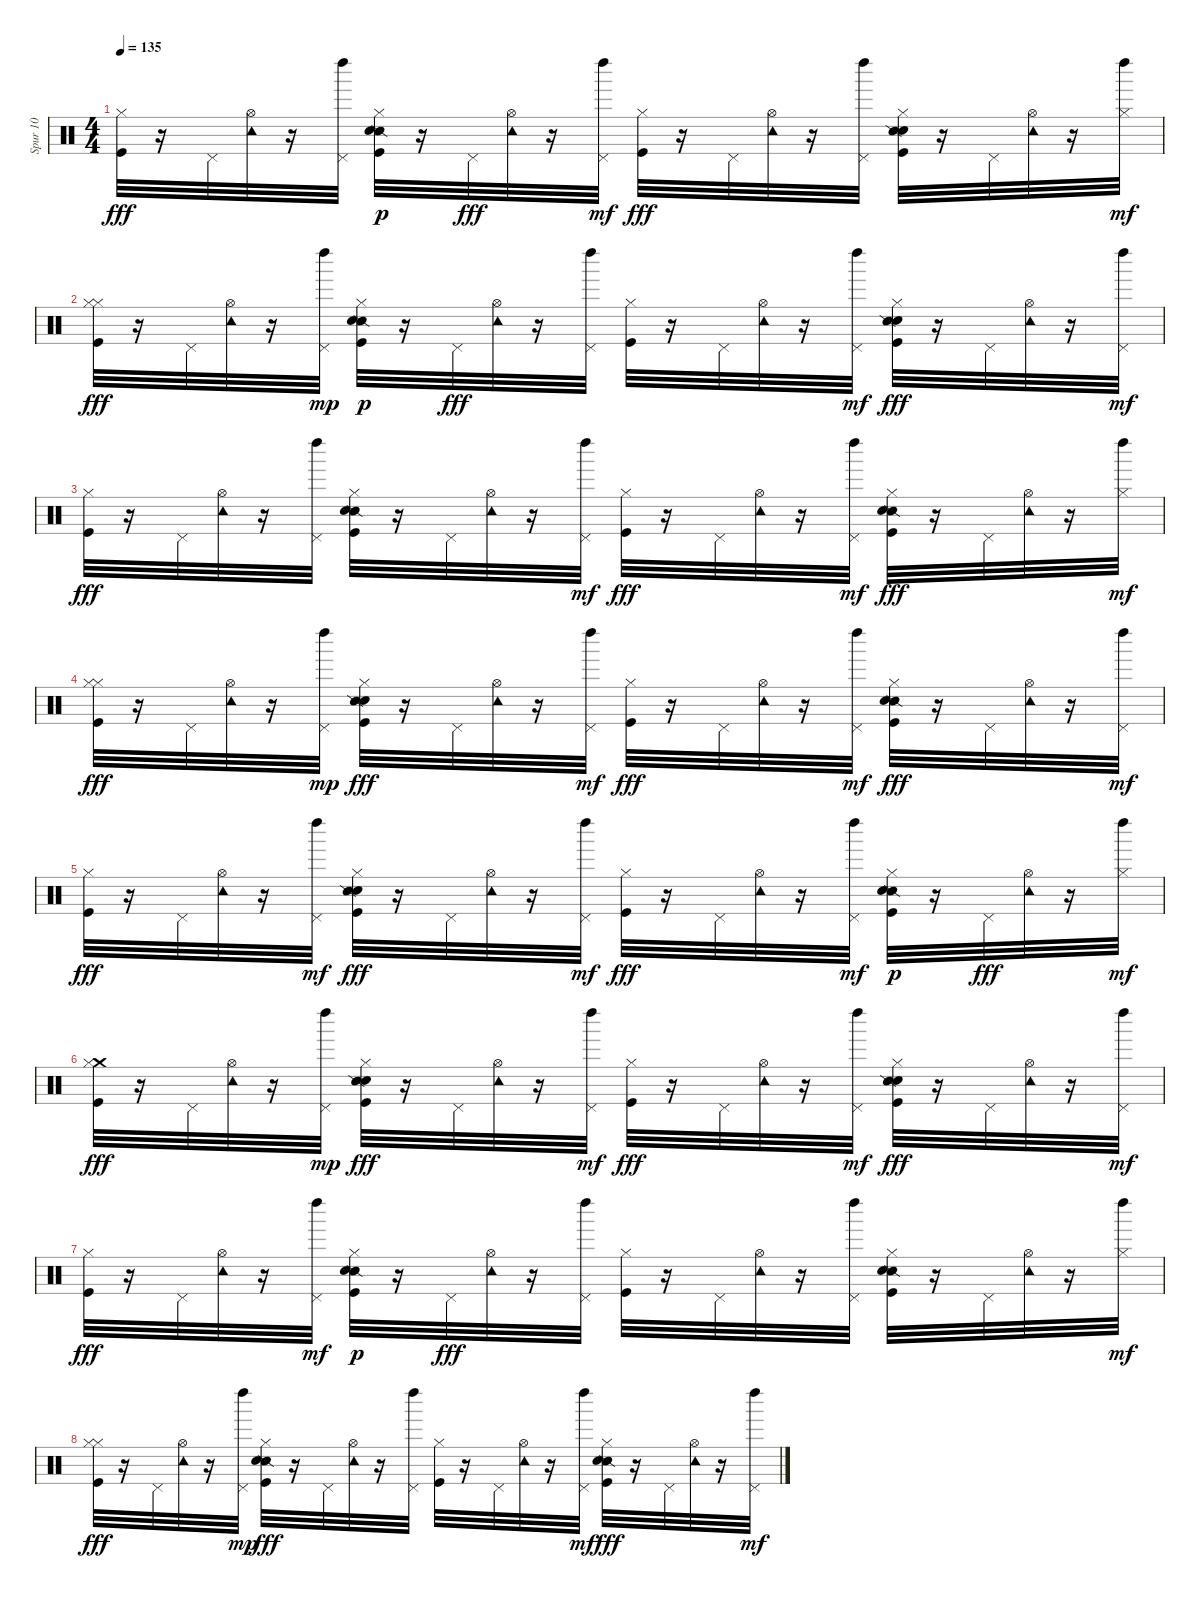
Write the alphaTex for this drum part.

\track ("Spur 10" "Spur 10") {instrument percussion}
\staff {score}
\articulation defaults
\ts (4 4)
\tempo 135
\clef neutral
\ks c
("Hi-Hat (closed)" "Kick (hit)").32{dy fff} r.16 "Pedal Hi-Hat (hit)".32 ("Hi-Hat (open)" "Tambourine (hit)").32 r.16 ("Left Maraca (hit)" "Pedal Hi-Hat (hit)").32 ("Snare (side stick) 2" "Kick (hit)" "Hi-Hat (closed)" "Hand Clap (hit)").32{dy p} r.16 "Pedal Hi-Hat (hit)".32{dy fff} ("Hi-Hat (open)" "Tambourine (hit)").32 r.16 ("Pedal Hi-Hat (hit)" "Left Maraca (hit)").32{dy mf} ("Hi-Hat (closed)" "Kick (hit)").32{dy fff} r.16 "Pedal Hi-Hat (hit)".32 ("Hi-Hat (open)" "Tambourine (hit)").32 r.16 ("Left Maraca (hit)" "Pedal Hi-Hat (hit)").32 ("Hand Clap (hit)" "Kick (hit)" "Hi-Hat (closed)" "Snare (side stick) 2").32 r.16 "Pedal Hi-Hat (hit)".32 ("Tambourine (hit)" "Hi-Hat (open)").32 r.16 ("Hi-Hat (closed)" "Left Maraca (hit)").32{dy mf} |
("Hi-Hat (closed)" "Hi-Hat (closed)" "Kick (hit)").32{dy fff} r.16 "Pedal Hi-Hat (hit)".32 ("Hi-Hat (open)" "Tambourine (hit)").32 r.16 ("Pedal Hi-Hat (hit)" "Left Maraca (hit)").32{dy mp} ("Hi-Hat (closed)" "Kick (hit)" "Snare (side stick) 2" "Hand Clap (hit)").32{dy p} r.16 "Pedal Hi-Hat (hit)".32{dy fff} ("Hi-Hat (open)" "Tambourine (hit)").32 r.16 ("Left Maraca (hit)" "Pedal Hi-Hat (hit)").32 ("Hi-Hat (closed)" "Kick (hit)").32 r.16 "Pedal Hi-Hat (hit)".32 ("Hi-Hat (open)" "Tambourine (hit)").32 r.16 ("Pedal Hi-Hat (hit)" "Left Maraca (hit)").32{dy mf} ("Hand Clap (hit)" "Snare (side stick) 2" "Kick (hit)" "Hi-Hat (closed)").32{dy fff} r.16 "Pedal Hi-Hat (hit)".32 ("Tambourine (hit)" "Hi-Hat (open)").32 r.16 ("Pedal Hi-Hat (hit)" "Left Maraca (hit)").32{dy mf} |
("Hi-Hat (closed)" "Kick (hit)").32{dy fff} r.16 "Pedal Hi-Hat (hit)".32 ("Hi-Hat (open)" "Tambourine (hit)").32 r.16 ("Left Maraca (hit)" "Pedal Hi-Hat (hit)").32 ("Snare (side stick) 2" "Hand Clap (hit)" "Kick (hit)" "Hi-Hat (closed)").32 r.16 "Pedal Hi-Hat (hit)".32 ("Hi-Hat (open)" "Tambourine (hit)").32 r.16 ("Pedal Hi-Hat (hit)" "Left Maraca (hit)").32{dy mf} ("Kick (hit)" "Hi-Hat (closed)").32{dy fff} r.16 "Pedal Hi-Hat (hit)".32 ("Hi-Hat (open)" "Tambourine (hit)").32 r.16 ("Pedal Hi-Hat (hit)" "Left Maraca (hit)").32{dy mf} ("Snare (side stick) 2" "Hand Clap (hit)" "Hi-Hat (closed)" "Kick (hit)").32{dy fff} r.16 "Pedal Hi-Hat (hit)".32 ("Hi-Hat (open)" "Tambourine (hit)").32 r.16 ("Left Maraca (hit)" "Hi-Hat (closed)").32{dy mf} |
("Hi-Hat (closed)" "Kick (hit)" "Hi-Hat (closed)").32{dy fff} r.16 "Pedal Hi-Hat (hit)".32 ("Hi-Hat (open)" "Tambourine (hit)").32 r.16 ("Pedal Hi-Hat (hit)" "Left Maraca (hit)").32{dy mp} ("Hand Clap (hit)" "Hi-Hat (closed)" "Kick (hit)" "Snare (side stick) 2").32{dy fff} r.16 "Pedal Hi-Hat (hit)".32 ("Hi-Hat (open)" "Tambourine (hit)").32 r.16 ("Pedal Hi-Hat (hit)" "Left Maraca (hit)").32{dy mf} ("Hi-Hat (closed)" "Kick (hit)").32{dy fff} r.16 "Pedal Hi-Hat (hit)".32 ("Tambourine (hit)" "Hi-Hat (open)").32 r.16 ("Pedal Hi-Hat (hit)" "Left Maraca (hit)").32{dy mf} ("Snare (side stick) 2" "Kick (hit)" "Hand Clap (hit)" "Hi-Hat (closed)").32{dy fff} r.16 "Pedal Hi-Hat (hit)".32 ("Hi-Hat (open)" "Tambourine (hit)").32 r.16 ("Pedal Hi-Hat (hit)" "Left Maraca (hit)").32{dy mf} |
("Hi-Hat (closed)" "Kick (hit)").32{dy fff} r.16 "Pedal Hi-Hat (hit)".32 ("Hi-Hat (open)" "Tambourine (hit)").32 r.16 ("Pedal Hi-Hat (hit)" "Left Maraca (hit)").32{dy mf} ("Hand Clap (hit)" "Kick (hit)" "Snare (side stick) 2" "Hi-Hat (closed)").32{dy fff} r.16 "Pedal Hi-Hat (hit)".32 ("Tambourine (hit)" "Hi-Hat (open)").32 r.16 ("Pedal Hi-Hat (hit)" "Left Maraca (hit)").32{dy mf} ("Hi-Hat (closed)" "Kick (hit)").32{dy fff} r.16 "Pedal Hi-Hat (hit)".32 ("Hi-Hat (open)" "Tambourine (hit)").32 r.16 ("Pedal Hi-Hat (hit)" "Left Maraca (hit)").32{dy mf} ("Hi-Hat (closed)" "Kick (hit)" "Snare (side stick) 2" "Hand Clap (hit)").32{dy p} r.16 "Pedal Hi-Hat (hit)".32{dy fff} ("Hi-Hat (open)" "Tambourine (hit)").32 r.16 ("Hi-Hat (closed)" "Left Maraca (hit)").32{dy mf} |
("Crash medium (hit)" "Kick (hit)" "Hi-Hat (closed)").32{dy fff} r.16 "Pedal Hi-Hat (hit)".32 ("Tambourine (hit)" "Hi-Hat (open)").32 r.16 ("Pedal Hi-Hat (hit)" "Left Maraca (hit)").32{dy mp} ("Hand Clap (hit)" "Kick (hit)" "Hi-Hat (closed)" "Snare (side stick) 2").32{dy fff} r.16 "Pedal Hi-Hat (hit)".32 ("Tambourine (hit)" "Hi-Hat (open)").32 r.16 ("Pedal Hi-Hat (hit)" "Left Maraca (hit)").32{dy mf} ("Kick (hit)" "Hi-Hat (closed)").32{dy fff} r.16 "Pedal Hi-Hat (hit)".32 ("Tambourine (hit)" "Hi-Hat (open)").32 r.16 ("Pedal Hi-Hat (hit)" "Left Maraca (hit)").32{dy mf} ("Kick (hit)" "Hand Clap (hit)" "Snare (side stick) 2" "Hi-Hat (closed)").32{dy fff} r.16 "Pedal Hi-Hat (hit)".32 ("Tambourine (hit)" "Hi-Hat (open)").32 r.16 ("Left Maraca (hit)" "Pedal Hi-Hat (hit)").32{dy mf} |
("Kick (hit)" "Hi-Hat (closed)").32{dy fff} r.16 "Pedal Hi-Hat (hit)".32 ("Hi-Hat (open)" "Tambourine (hit)").32 r.16 ("Pedal Hi-Hat (hit)" "Left Maraca (hit)").32{dy mf} ("Kick (hit)" "Snare (side stick) 2" "Hi-Hat (closed)" "Hand Clap (hit)").32{dy p} r.16 "Pedal Hi-Hat (hit)".32{dy fff} ("Hi-Hat (open)" "Tambourine (hit)").32 r.16 ("Left Maraca (hit)" "Pedal Hi-Hat (hit)").32 ("Kick (hit)" "Hi-Hat (closed)").32 r.16 "Pedal Hi-Hat (hit)".32 ("Hi-Hat (open)" "Tambourine (hit)").32 r.16 ("Left Maraca (hit)" "Pedal Hi-Hat (hit)").32 ("Kick (hit)" "Snare (side stick) 2" "Hand Clap (hit)" "Hi-Hat (closed)").32 r.16 "Pedal Hi-Hat (hit)".32 ("Tambourine (hit)" "Hi-Hat (open)").32 r.16 ("Left Maraca (hit)" "Hi-Hat (closed)").32{dy mf} |
("Hi-Hat (closed)" "Kick (hit)" "Hi-Hat (closed)").32{dy fff} r.16 "Pedal Hi-Hat (hit)".32 ("Hi-Hat (open)" "Tambourine (hit)").32 r.16 ("Pedal Hi-Hat (hit)" "Left Maraca (hit)").32{dy mp} ("Snare (side stick) 2" "Hand Clap (hit)" "Hi-Hat (closed)" "Kick (hit)").32{dy fff} r.16 "Pedal Hi-Hat (hit)".32 ("Hi-Hat (open)" "Tambourine (hit)").32 r.16 ("Left Maraca (hit)" "Pedal Hi-Hat (hit)").32 ("Kick (hit)" "Hi-Hat (closed)").32 r.16 "Pedal Hi-Hat (hit)".32 ("Tambourine (hit)" "Hi-Hat (open)").32 r.16 ("Left Maraca (hit)" "Pedal Hi-Hat (hit)").32{dy mf} ("Hi-Hat (closed)" "Snare (side stick) 2" "Hand Clap (hit)" "Kick (hit)").32{dy fff} r.16 "Pedal Hi-Hat (hit)".32 ("Hi-Hat (open)" "Tambourine (hit)").32 r.16 ("Pedal Hi-Hat (hit)" "Left Maraca (hit)").32{dy mf}
